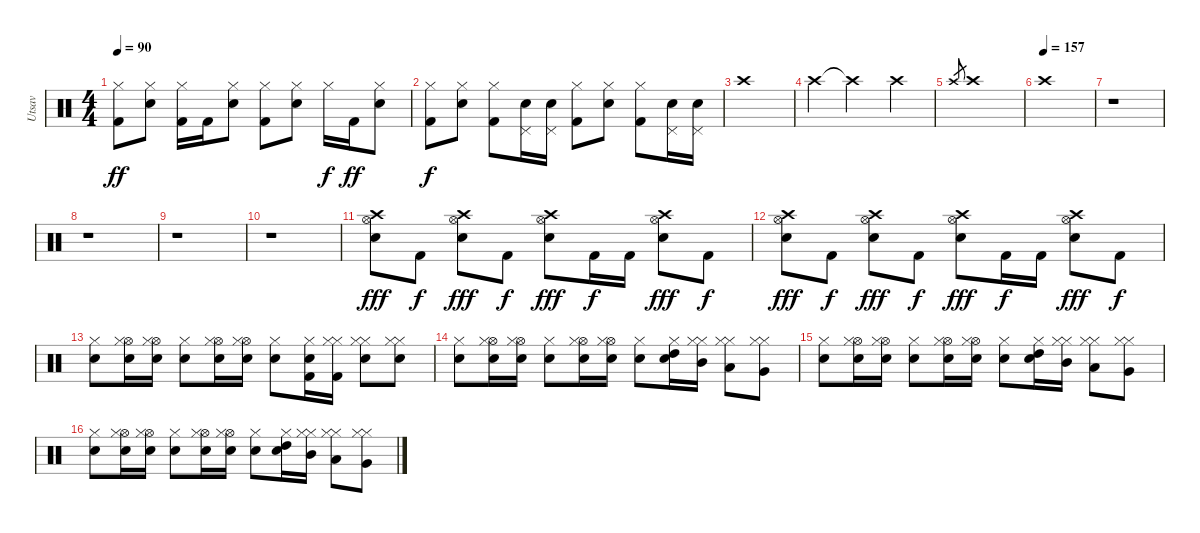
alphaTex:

\track ("Utsav" "Utsav") {instrument percussion}
\staff {score}
\articulation defaults
\ts (4 4)
\tempo 90
\clef neutral
\ks c
("Hi-Hat (closed)" "Kick (hit) 2").8{dy ff} ("Hi-Hat (closed)" "Snare (hit) 2").8 ("Hi-Hat (closed)" "Kick (hit) 2").16 "Kick (hit) 2".16 ("Hi-Hat (closed)" "Snare (hit) 2").8 ("Hi-Hat (closed)" "Kick (hit) 2").8 ("Hi-Hat (closed)" "Snare (hit) 2").8 "Hi-Hat (closed)".16{dy f} "Kick (hit) 2".16{dy ff} ("Hi-Hat (closed)" "Snare (hit) 2").8 |
("Hi-Hat (closed)" "Kick (hit) 2").8{dy f} ("Hi-Hat (closed)" "Snare (hit) 2").8 ("Hi-Hat (closed)" "Kick (hit) 2").8 ("Pedal Hi-Hat (hit)" "Snare (hit) 2").16 ("Pedal Hi-Hat (hit)" "Snare (hit) 2").16 ("Hi-Hat (closed)" "Kick (hit) 2").8 ("Hi-Hat (closed)" "Snare (hit) 2").8 ("Hi-Hat (closed)" "Kick (hit) 2").8 ("Pedal Hi-Hat (hit)" "Snare (hit) 2").16 ("Pedal Hi-Hat (hit)" "Snare (hit) 2").16 |
"Crash high (hit)".1 |
"Crash high (hit)".4 "Crash high (hit)"{t}.2 "Crash high (hit)".4 |
"Crash high (hit)"{x}.8{gr} "Crash high (hit)".1 |
\tempo (157)
"Crash high (hit)".1 |
r.1 |
r.1 |
r.1 |
r.1 |
("Crash high (hit)" "Hi-Hat (open)" "Electric Snare (hit)").8{dy fff} "Kick (hit) 2".8{dy f} ("Crash high (hit)" "Hi-Hat (open)" "Electric Snare (hit)").8{dy fff} "Kick (hit) 2".8{dy f} ("Crash high (hit)" "Hi-Hat (open)" "Electric Snare (hit)").8{dy fff} "Kick (hit) 2".16{dy f} "Kick (hit) 2".16 ("Crash high (hit)" "Hi-Hat (open)" "Electric Snare (hit)").8{dy fff} "Kick (hit) 2".8{dy f} |
("Crash high (hit)" "Hi-Hat (open)" "Electric Snare (hit)").8{dy fff} "Kick (hit) 2".8{dy f} ("Crash high (hit)" "Hi-Hat (open)" "Electric Snare (hit)").8{dy fff} "Kick (hit) 2".8{dy f} ("Crash high (hit)" "Hi-Hat (open)" "Electric Snare (hit)").8{dy fff} "Kick (hit) 2".16{dy f} "Kick (hit) 2".16 ("Crash high (hit)" "Hi-Hat (open)" "Electric Snare (hit)").8{dy fff} "Kick (hit) 2".8{dy f} |
("Electric Snare (hit)" "Hi-Hat (closed)").8 ("Hi-Hat (open)" "Snare (hit) 2" "Hi-Hat (closed)").16 ("Hi-Hat (open)" "Snare (hit) 2" "Hi-Hat (closed)").16 ("Electric Snare (hit)" "Hi-Hat (closed)").8 ("Hi-Hat (open)" "Snare (hit) 2" "Hi-Hat (closed)").16 ("Hi-Hat (open)" "Snare (hit) 2" "Hi-Hat (closed)").16 ("Electric Snare (hit)" "Hi-Hat (closed)").8 ("Hi-Hat (closed)" "Kick (hit) 2" "Snare (hit)").16 ("Hi-Hat (closed)" "Kick (hit) 2" "Hi-Hat (closed)").16 ("Hi-Hat (closed)" "Electric Snare (hit)" "Hi-Hat (closed)").8 ("Hi-Hat (closed)" "Electric Snare (hit)" "Hi-Hat (closed)").8 |
("Electric Snare (hit)" "Hi-Hat (closed)").8 ("Hi-Hat (open)" "Snare (hit) 2" "Hi-Hat (closed)").16 ("Hi-Hat (open)" "Snare (hit) 2" "Hi-Hat (closed)").16 ("Electric Snare (hit)" "Hi-Hat (closed)").8 ("Hi-Hat (open)" "Snare (hit) 2" "Hi-Hat (closed)").16 ("Hi-Hat (open)" "Snare (hit) 2" "Hi-Hat (closed)").16 ("Electric Snare (hit)" "Hi-Hat (closed)").8 ("Hi-Hat (closed)" "High Tom (hit)" "Snare (hit)").16 ("Hi-Hat (closed)" "Mid Tom (hit)" "Hi-Hat (closed)").16 ("Hi-Hat (closed)" "Low Tom (hit)" "Hi-Hat (closed)").8 ("Hi-Hat (closed)" "Very Low Tom (hit)" "Hi-Hat (closed)").8 |
("Electric Snare (hit)" "Hi-Hat (closed)").8 ("Hi-Hat (open)" "Snare (hit) 2" "Hi-Hat (closed)").16 ("Hi-Hat (open)" "Snare (hit) 2" "Hi-Hat (closed)").16 ("Electric Snare (hit)" "Hi-Hat (closed)").8 ("Hi-Hat (open)" "Snare (hit) 2" "Hi-Hat (closed)").16 ("Hi-Hat (open)" "Snare (hit) 2" "Hi-Hat (closed)").16 ("Electric Snare (hit)" "Hi-Hat (closed)").8 ("Hi-Hat (closed)" "High Tom (hit)" "Snare (hit)").16 ("Hi-Hat (closed)" "Mid Tom (hit)" "Hi-Hat (closed)").16 ("Hi-Hat (closed)" "Low Tom (hit)" "Hi-Hat (closed)").8 ("Hi-Hat (closed)" "Very Low Tom (hit)" "Hi-Hat (closed)").8 |
("Electric Snare (hit)" "Hi-Hat (closed)").8 ("Hi-Hat (open)" "Snare (hit) 2" "Hi-Hat (closed)").16 ("Hi-Hat (open)" "Snare (hit) 2" "Hi-Hat (closed)").16 ("Electric Snare (hit)" "Hi-Hat (closed)").8 ("Hi-Hat (open)" "Snare (hit) 2" "Hi-Hat (closed)").16 ("Hi-Hat (open)" "Snare (hit) 2" "Hi-Hat (closed)").16 ("Electric Snare (hit)" "Hi-Hat (closed)").8 ("Hi-Hat (closed)" "High Tom (hit)" "Snare (hit)").16 ("Hi-Hat (closed)" "Mid Tom (hit)" "Hi-Hat (closed)").16 ("Hi-Hat (closed)" "Low Tom (hit)" "Hi-Hat (closed)").8 ("Hi-Hat (closed)" "Very Low Tom (hit)" "Hi-Hat (closed)").8
